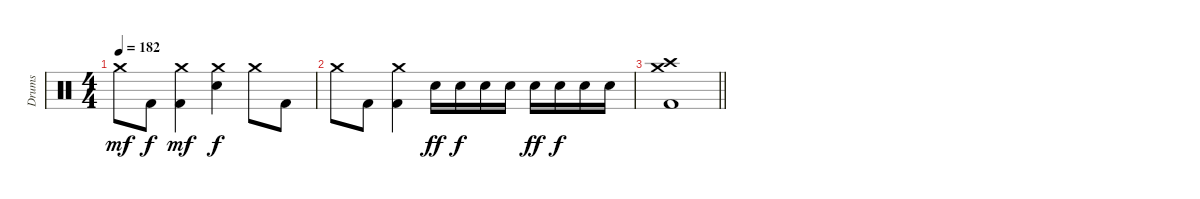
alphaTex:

\track ("Drums" "Drums") {instrument percussion}
\staff {score}
\articulation defaults
\ts (4 4)
\tempo 182
\clef neutral
\ks c "Crash medium (hit)".8{dy mf} "Kick (hit) 2".8{dy f}
("Crash medium (hit)" "Kick (hit) 2").4{dy mf} ("Crash medium (hit)" "Electric Snare (hit)").4{dy f} "Crash medium (hit)".8 "Kick (hit) 2".8 |
"Crash medium (hit)".8 "Kick (hit) 2".8 ("Crash medium (hit)" "Kick (hit) 2").4 "Electric Snare (hit)".16{dy ff} "Electric Snare (hit)".16{dy f} "Electric Snare (hit)".16 "Electric Snare (hit)".16 "Electric Snare (hit)".16{dy ff} "Electric Snare (hit)".16{dy f} "Electric Snare (hit)".16 "Electric Snare (hit)".16 |
\barLineRight lightlight
("Crash high (hit)" "Crash medium (hit)" "Kick (hit) 2").1
